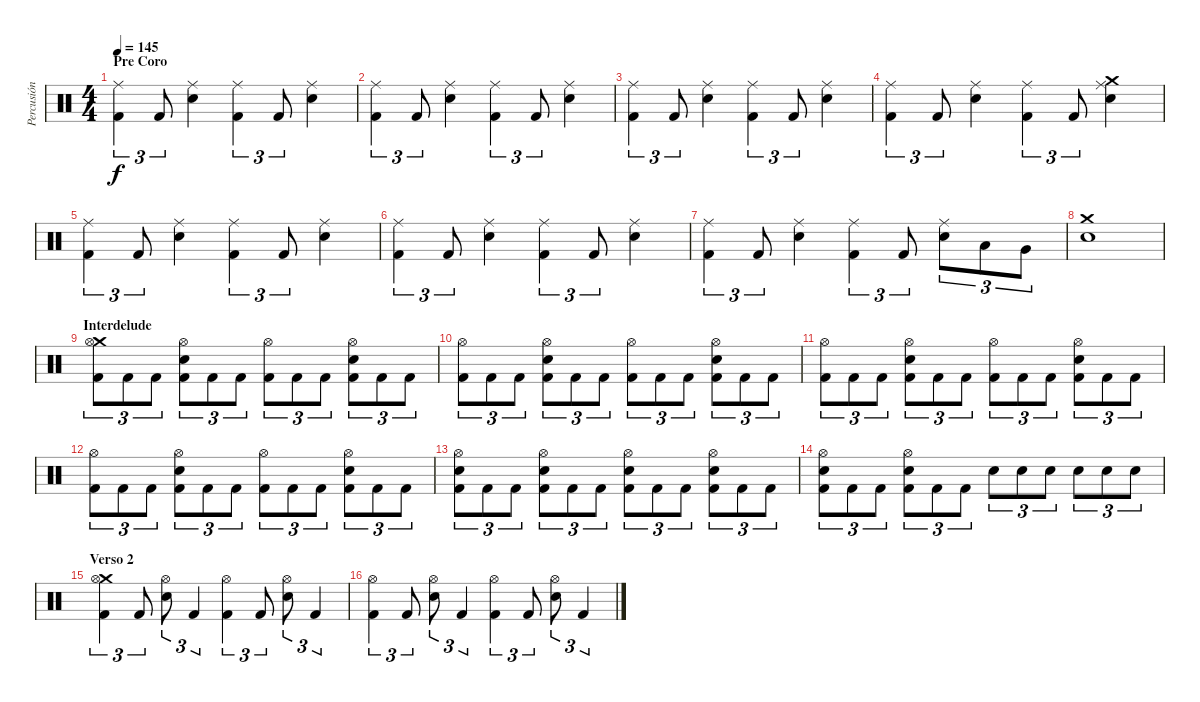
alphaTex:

\track ("Percusión" "Percusión") {instrument percussion}
\staff {score}
\articulation defaults
\ts (4 4)
\section ("" "Pre Coro")
\tempo 145
\clef neutral
\ks c
("Kick (hit) 2" "Ride (middle)").4{tu (3 2) dy f} "Kick (hit) 2".8{tu (3 2)} ("Snare (hit) 2" "Ride (middle)").4 ("Kick (hit) 2" "Ride (middle)").4{tu (3 2)} "Kick (hit) 2".8{tu (3 2)} ("Snare (hit) 2" "Ride (middle)").4 |
("Kick (hit) 2" "Ride (middle)").4{tu (3 2)} "Kick (hit) 2".8{tu (3 2)} ("Snare (hit) 2" "Ride (middle)").4 ("Kick (hit) 2" "Ride (middle)").4{tu (3 2)} "Kick (hit) 2".8{tu (3 2)} ("Snare (hit) 2" "Ride (middle)").4 |
("Kick (hit) 2" "Ride (middle)").4{tu (3 2)} "Kick (hit) 2".8{tu (3 2)} ("Snare (hit) 2" "Ride (middle)").4 ("Kick (hit) 2" "Ride (middle)").4{tu (3 2)} "Kick (hit) 2".8{tu (3 2)} ("Snare (hit) 2" "Ride (middle)").4 |
("Kick (hit) 2" "Ride (middle)").4{tu (3 2)} "Kick (hit) 2".8{tu (3 2)} ("Snare (hit) 2" "Ride (middle)").4 ("Kick (hit) 2" "Ride (middle)").4{tu (3 2)} "Kick (hit) 2".8{tu (3 2)} ("Crash medium (hit)" "Snare (hit) 2" "Ride (middle)").4 |
("Kick (hit) 2" "Ride (middle)").4{tu (3 2)} "Kick (hit) 2".8{tu (3 2)} ("Snare (hit) 2" "Ride (middle)").4 ("Kick (hit) 2" "Ride (middle)").4{tu (3 2)} "Kick (hit) 2".8{tu (3 2)} ("Snare (hit) 2" "Ride (middle)").4 |
("Kick (hit) 2" "Ride (middle)").4{tu (3 2)} "Kick (hit) 2".8{tu (3 2)} ("Snare (hit) 2" "Ride (middle)").4 ("Kick (hit) 2" "Ride (middle)").4{tu (3 2)} "Kick (hit) 2".8{tu (3 2)} ("Snare (hit) 2" "Ride (middle)").4 |
("Kick (hit) 2" "Ride (middle)").4{tu (3 2)} "Kick (hit) 2".8{tu (3 2)} ("Snare (hit) 2" "Ride (middle)").4 ("Kick (hit) 2" "Ride (middle)").4{tu (3 2)} "Kick (hit) 2".8{tu (3 2)} ("Snare (hit) 2" "Ride (middle)").8{tu (3 2)} "Low Tom (hit)".8{tu (3 2)} "Very Low Tom (hit)".8{tu (3 2)} |
("Crash medium (hit)" "Snare (hit) 2").1 |
\section ("" "Interdelude ")
("Crash medium (hit)" "Kick (hit) 2" "Hi-Hat (open)").8{tu (3 2)} "Kick (hit) 2".8{tu (3 2)} "Kick (hit) 2".8{tu (3 2)} ("Hi-Hat (open)" "Kick (hit) 2" "Snare (hit) 2").8{tu (3 2)} "Kick (hit) 2".8{tu (3 2)} "Kick (hit) 2".8{tu (3 2)} ("Kick (hit) 2" "Hi-Hat (open)").8{tu (3 2)} "Kick (hit) 2".8{tu (3 2)} "Kick (hit) 2".8{tu (3 2)} ("Hi-Hat (open)" "Kick (hit) 2" "Snare (hit) 2").8{tu (3 2)} "Kick (hit) 2".8{tu (3 2)} "Kick (hit) 2".8{tu (3 2)} |
("Kick (hit) 2" "Hi-Hat (open)").8{tu (3 2)} "Kick (hit) 2".8{tu (3 2)} "Kick (hit) 2".8{tu (3 2)} ("Hi-Hat (open)" "Kick (hit) 2" "Snare (hit) 2").8{tu (3 2)} "Kick (hit) 2".8{tu (3 2)} "Kick (hit) 2".8{tu (3 2)} ("Kick (hit) 2" "Hi-Hat (open)").8{tu (3 2)} "Kick (hit) 2".8{tu (3 2)} "Kick (hit) 2".8{tu (3 2)} ("Hi-Hat (open)" "Kick (hit) 2" "Snare (hit) 2").8{tu (3 2)} "Kick (hit) 2".8{tu (3 2)} "Kick (hit) 2".8{tu (3 2)} |
("Kick (hit) 2" "Hi-Hat (open)").8{tu (3 2)} "Kick (hit) 2".8{tu (3 2)} "Kick (hit) 2".8{tu (3 2)} ("Hi-Hat (open)" "Kick (hit) 2" "Snare (hit) 2").8{tu (3 2)} "Kick (hit) 2".8{tu (3 2)} "Kick (hit) 2".8{tu (3 2)} ("Kick (hit) 2" "Hi-Hat (open)").8{tu (3 2)} "Kick (hit) 2".8{tu (3 2)} "Kick (hit) 2".8{tu (3 2)} ("Hi-Hat (open)" "Kick (hit) 2" "Snare (hit) 2").8{tu (3 2)} "Kick (hit) 2".8{tu (3 2)} "Kick (hit) 2".8{tu (3 2)} |
("Kick (hit) 2" "Hi-Hat (open)").8{tu (3 2)} "Kick (hit) 2".8{tu (3 2)} "Kick (hit) 2".8{tu (3 2)} ("Hi-Hat (open)" "Kick (hit) 2" "Snare (hit) 2").8{tu (3 2)} "Kick (hit) 2".8{tu (3 2)} "Kick (hit) 2".8{tu (3 2)} ("Kick (hit) 2" "Hi-Hat (open)").8{tu (3 2)} "Kick (hit) 2".8{tu (3 2)} "Kick (hit) 2".8{tu (3 2)} ("Hi-Hat (open)" "Kick (hit) 2" "Snare (hit) 2").8{tu (3 2)} "Kick (hit) 2".8{tu (3 2)} "Kick (hit) 2".8{tu (3 2)} |
("Snare (hit) 2" "Kick (hit) 2" "Hi-Hat (open)").8{tu (3 2)} "Kick (hit) 2".8{tu (3 2)} "Kick (hit) 2".8{tu (3 2)} ("Hi-Hat (open)" "Kick (hit) 2" "Snare (hit) 2").8{tu (3 2)} "Kick (hit) 2".8{tu (3 2)} "Kick (hit) 2".8{tu (3 2)} ("Snare (hit) 2" "Kick (hit) 2" "Hi-Hat (open)").8{tu (3 2)} "Kick (hit) 2".8{tu (3 2)} "Kick (hit) 2".8{tu (3 2)} ("Hi-Hat (open)" "Kick (hit) 2" "Snare (hit) 2").8{tu (3 2)} "Kick (hit) 2".8{tu (3 2)} "Kick (hit) 2".8{tu (3 2)} |
("Snare (hit) 2" "Kick (hit) 2" "Hi-Hat (open)").8{tu (3 2)} "Kick (hit) 2".8{tu (3 2)} "Kick (hit) 2".8{tu (3 2)} ("Hi-Hat (open)" "Kick (hit) 2" "Snare (hit) 2").8{tu (3 2)} "Kick (hit) 2".8{tu (3 2)} "Kick (hit) 2".8{tu (3 2)} "Snare (hit) 2".8{tu (3 2)} "Snare (hit) 2".8{tu (3 2)} "Snare (hit) 2".8{tu (3 2)} "Snare (hit) 2".8{tu (3 2)} "Snare (hit) 2".8{tu (3 2)} "Snare (hit) 2".8{tu (3 2)} |
\section ("" "Verso 2")
("Kick (hit) 2" "Crash medium (hit)" "Hi-Hat (open)").4{tu (3 2)} "Kick (hit) 2".8{tu (3 2)} ("Snare (hit) 2" "Hi-Hat (open)").8{tu (3 2)} "Kick (hit) 2".4{tu (3 2)} ("Kick (hit) 2" "Hi-Hat (open)").4{tu (3 2)} "Kick (hit) 2".8{tu (3 2)} ("Snare (hit) 2" "Hi-Hat (open)").8{tu (3 2)} "Kick (hit) 2".4{tu (3 2)} |
("Kick (hit) 2" "Hi-Hat (open)").4{tu (3 2)} "Kick (hit) 2".8{tu (3 2)} ("Snare (hit) 2" "Hi-Hat (open)").8{tu (3 2)} "Kick (hit) 2".4{tu (3 2)} ("Kick (hit) 2" "Hi-Hat (open)").4{tu (3 2)} "Kick (hit) 2".8{tu (3 2)} ("Snare (hit) 2" "Hi-Hat (open)").8{tu (3 2)} "Kick (hit) 2".4{tu (3 2)}
